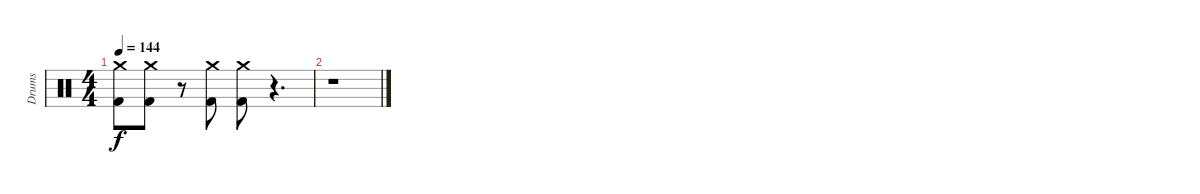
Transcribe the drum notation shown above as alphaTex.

\track ("Drums" "Drums") {instrument percussion}
\staff {score}
\articulation defaults
\ts (4 4)
\tempo 144
\clef neutral
\ks c
("Crash medium (hit)" "Kick (hit) 2").8{dy f} ("Crash medium (hit)" "Kick (hit) 2").8 r.8 ("Crash medium (hit)" "Kick (hit) 2").8 ("Crash medium (hit)" "Kick (hit) 2").8 r.4{d} |
r.1
